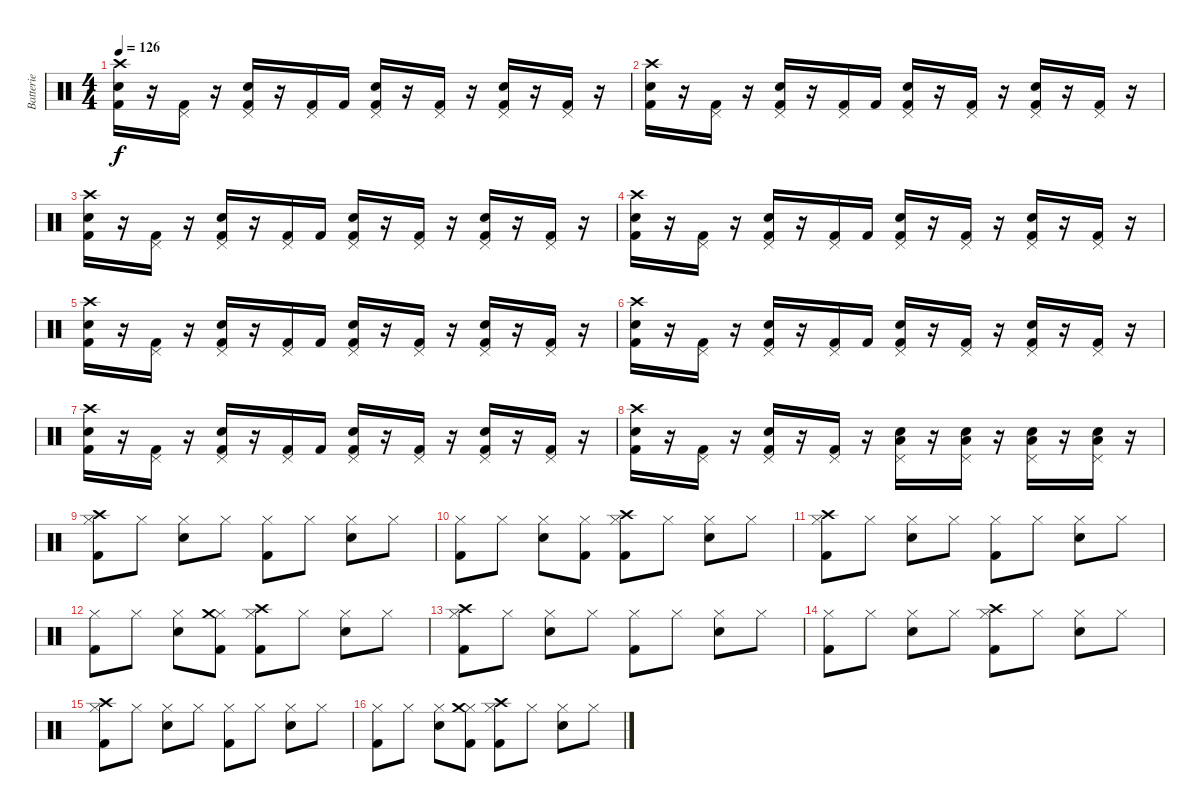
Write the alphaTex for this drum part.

\track ("Batterie" "Batterie") {instrument percussion}
\staff {score}
\articulation defaults
\ts (4 4)
\tempo 126
\clef neutral
\ks c
("Crash high (hit)" "Snare (hit) 2" "Kick (hit) 2").16{dy f} r.16 ("Pedal Hi-Hat (hit)" "Kick (hit) 2").16 r.16 ("Pedal Hi-Hat (hit)" "Snare (hit) 2" "Kick (hit) 2").16 r.16 ("Pedal Hi-Hat (hit)" "Kick (hit) 2").16 "Kick (hit) 2".16 ("Pedal Hi-Hat (hit)" "Snare (hit) 2" "Kick (hit) 2").16 r.16 ("Pedal Hi-Hat (hit)" "Kick (hit) 2").16 r.16 ("Pedal Hi-Hat (hit)" "Snare (hit) 2" "Kick (hit) 2").16 r.16 ("Pedal Hi-Hat (hit)" "Kick (hit) 2").16 r.16 |
("Crash high (hit)" "Snare (hit) 2" "Kick (hit) 2").16 r.16 ("Pedal Hi-Hat (hit)" "Kick (hit) 2").16 r.16 ("Pedal Hi-Hat (hit)" "Snare (hit) 2" "Kick (hit) 2").16 r.16 ("Pedal Hi-Hat (hit)" "Kick (hit) 2").16 "Kick (hit) 2".16 ("Pedal Hi-Hat (hit)" "Snare (hit) 2" "Kick (hit) 2").16 r.16 ("Pedal Hi-Hat (hit)" "Kick (hit) 2").16 r.16 ("Pedal Hi-Hat (hit)" "Snare (hit) 2" "Kick (hit) 2").16 r.16 ("Pedal Hi-Hat (hit)" "Kick (hit) 2").16 r.16 |
("Crash high (hit)" "Snare (hit) 2" "Kick (hit) 2").16 r.16 ("Pedal Hi-Hat (hit)" "Kick (hit) 2").16 r.16 ("Pedal Hi-Hat (hit)" "Snare (hit) 2" "Kick (hit) 2").16 r.16 ("Pedal Hi-Hat (hit)" "Kick (hit) 2").16 "Kick (hit) 2".16 ("Pedal Hi-Hat (hit)" "Snare (hit) 2" "Kick (hit) 2").16 r.16 ("Pedal Hi-Hat (hit)" "Kick (hit) 2").16 r.16 ("Pedal Hi-Hat (hit)" "Snare (hit) 2" "Kick (hit) 2").16 r.16 ("Pedal Hi-Hat (hit)" "Kick (hit) 2").16 r.16 |
("Crash high (hit)" "Snare (hit) 2" "Kick (hit) 2").16 r.16 ("Pedal Hi-Hat (hit)" "Kick (hit) 2").16 r.16 ("Pedal Hi-Hat (hit)" "Snare (hit) 2" "Kick (hit) 2").16 r.16 ("Pedal Hi-Hat (hit)" "Kick (hit) 2").16 "Kick (hit) 2".16 ("Pedal Hi-Hat (hit)" "Snare (hit) 2" "Kick (hit) 2").16 r.16 ("Pedal Hi-Hat (hit)" "Kick (hit) 2").16 r.16 ("Pedal Hi-Hat (hit)" "Snare (hit) 2" "Kick (hit) 2").16 r.16 ("Pedal Hi-Hat (hit)" "Kick (hit) 2").16 r.16 |
("Crash high (hit)" "Snare (hit) 2" "Kick (hit) 2").16 r.16 ("Pedal Hi-Hat (hit)" "Kick (hit) 2").16 r.16 ("Pedal Hi-Hat (hit)" "Snare (hit) 2" "Kick (hit) 2").16 r.16 ("Pedal Hi-Hat (hit)" "Kick (hit) 2").16 "Kick (hit) 2".16 ("Pedal Hi-Hat (hit)" "Snare (hit) 2" "Kick (hit) 2").16 r.16 ("Pedal Hi-Hat (hit)" "Kick (hit) 2").16 r.16 ("Pedal Hi-Hat (hit)" "Snare (hit) 2" "Kick (hit) 2").16 r.16 ("Pedal Hi-Hat (hit)" "Kick (hit) 2").16 r.16 |
("Crash high (hit)" "Snare (hit) 2" "Kick (hit) 2").16 r.16 ("Pedal Hi-Hat (hit)" "Kick (hit) 2").16 r.16 ("Pedal Hi-Hat (hit)" "Snare (hit) 2" "Kick (hit) 2").16 r.16 ("Pedal Hi-Hat (hit)" "Kick (hit) 2").16 "Kick (hit) 2".16 ("Pedal Hi-Hat (hit)" "Snare (hit) 2" "Kick (hit) 2").16 r.16 ("Pedal Hi-Hat (hit)" "Kick (hit) 2").16 r.16 ("Pedal Hi-Hat (hit)" "Snare (hit) 2" "Kick (hit) 2").16 r.16 ("Pedal Hi-Hat (hit)" "Kick (hit) 2").16 r.16 |
("Crash high (hit)" "Snare (hit) 2" "Kick (hit) 2").16 r.16 ("Pedal Hi-Hat (hit)" "Kick (hit) 2").16 r.16 ("Pedal Hi-Hat (hit)" "Snare (hit) 2" "Kick (hit) 2").16 r.16 ("Pedal Hi-Hat (hit)" "Kick (hit) 2").16 "Kick (hit) 2".16 ("Pedal Hi-Hat (hit)" "Snare (hit) 2" "Kick (hit) 2").16 r.16 ("Pedal Hi-Hat (hit)" "Kick (hit) 2").16 r.16 ("Pedal Hi-Hat (hit)" "Snare (hit) 2" "Kick (hit) 2").16 r.16 ("Pedal Hi-Hat (hit)" "Kick (hit) 2").16 r.16 |
("Crash high (hit)" "Snare (hit) 2" "Kick (hit) 2").16 r.16 ("Pedal Hi-Hat (hit)" "Kick (hit) 2").16 r.16 ("Pedal Hi-Hat (hit)" "Snare (hit) 2" "Kick (hit) 2").16 r.16 ("Pedal Hi-Hat (hit)" "Kick (hit) 2").16 r.16 ("Pedal Hi-Hat (hit)" "Snare (hit) 2" "Low Tom (hit)").16 r.16 ("Pedal Hi-Hat (hit)" "Snare (hit) 2" "Low Tom (hit)").16 r.16 ("Pedal Hi-Hat (hit)" "Snare (hit) 2" "Low Tom (hit)").16 r.16 ("Pedal Hi-Hat (hit)" "Snare (hit) 2" "Low Tom (hit)").16 r.16 |
("Hi-Hat (closed)" "Crash high (hit)" "Kick (hit) 2").8 "Hi-Hat (closed)".8 ("Hi-Hat (closed)" "Snare (hit) 2").8 "Hi-Hat (closed)".8 ("Hi-Hat (closed)" "Kick (hit) 2").8 "Hi-Hat (closed)".8 ("Hi-Hat (closed)" "Snare (hit) 2").8 "Hi-Hat (closed)".8 |
("Hi-Hat (closed)" "Kick (hit) 2").8 "Hi-Hat (closed)".8 ("Hi-Hat (closed)" "Snare (hit) 2").8 ("Hi-Hat (closed)" "Kick (hit) 2").8 ("Hi-Hat (closed)" "Crash high (hit)" "Kick (hit) 2").8 "Hi-Hat (closed)".8 ("Hi-Hat (closed)" "Snare (hit) 2").8 "Hi-Hat (closed)".8 |
("Hi-Hat (closed)" "Crash high (hit)" "Kick (hit) 2").8 "Hi-Hat (closed)".8 ("Hi-Hat (closed)" "Snare (hit) 2").8 "Hi-Hat (closed)".8 ("Hi-Hat (closed)" "Kick (hit) 2").8 "Hi-Hat (closed)".8 ("Hi-Hat (closed)" "Snare (hit) 2").8 "Hi-Hat (closed)".8 |
("Hi-Hat (closed)" "Kick (hit) 2").8 "Hi-Hat (closed)".8 ("Hi-Hat (closed)" "Snare (hit) 2").8 ("Hi-Hat (closed)" "Crash medium (hit)" "Kick (hit) 2").8 ("Hi-Hat (closed)" "Crash high (hit)" "Kick (hit) 2").8 "Hi-Hat (closed)".8 ("Hi-Hat (closed)" "Snare (hit) 2").8 "Hi-Hat (closed)".8 |
("Hi-Hat (closed)" "Crash high (hit)" "Kick (hit) 2").8 "Hi-Hat (closed)".8 ("Hi-Hat (closed)" "Snare (hit) 2").8 "Hi-Hat (closed)".8 ("Hi-Hat (closed)" "Kick (hit) 2").8 "Hi-Hat (closed)".8 ("Hi-Hat (closed)" "Snare (hit) 2").8 "Hi-Hat (closed)".8 |
("Hi-Hat (closed)" "Kick (hit) 2").8 "Hi-Hat (closed)".8 ("Hi-Hat (closed)" "Snare (hit) 2").8 "Hi-Hat (closed)".8 ("Hi-Hat (closed)" "Crash high (hit)" "Kick (hit) 2").8 "Hi-Hat (closed)".8 ("Hi-Hat (closed)" "Snare (hit) 2").8 "Hi-Hat (closed)".8 |
("Hi-Hat (closed)" "Crash high (hit)" "Kick (hit) 2").8 "Hi-Hat (closed)".8 ("Hi-Hat (closed)" "Snare (hit) 2").8 "Hi-Hat (closed)".8 ("Hi-Hat (closed)" "Kick (hit) 2").8 "Hi-Hat (closed)".8 ("Hi-Hat (closed)" "Snare (hit) 2").8 "Hi-Hat (closed)".8 |
("Hi-Hat (closed)" "Kick (hit) 2").8 "Hi-Hat (closed)".8 ("Hi-Hat (closed)" "Snare (hit) 2").8 ("Hi-Hat (closed)" "Crash medium (hit)" "Kick (hit) 2").8 ("Hi-Hat (closed)" "Crash high (hit)" "Kick (hit) 2").8 "Hi-Hat (closed)".8 ("Hi-Hat (closed)" "Snare (hit) 2").8 "Hi-Hat (closed)".8
